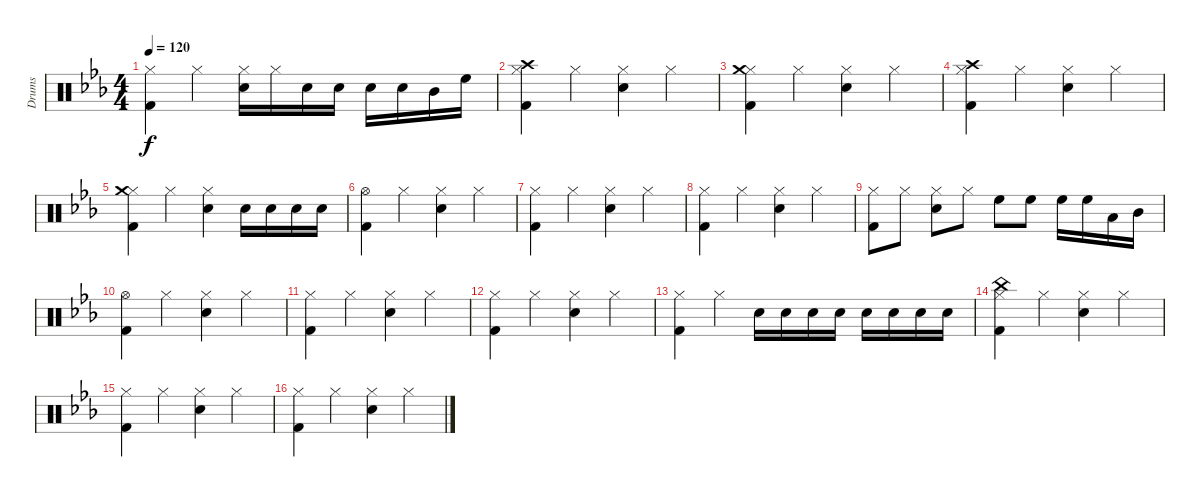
\track ("Drums" "Drums") {instrument percussion}
\staff {score}
\articulation defaults
\ts (4 4)
\tempo 120
\clef neutral
\ks cminor
("Hi-Hat (closed)" "Kick (hit) 2").4{dy f} "Hi-Hat (closed)".4 ("Hi-Hat (closed)" "Snare (hit) 2").16 "Hi-Hat (closed)".16 "Snare (hit) 2".16 "Snare (hit) 2".16 "Snare (hit) 2".16 "Snare (hit) 2".16 "Mid Tom (hit)".16 "High Floor Tom (hit)".16 |
("Hi-Hat (closed)" "Crash high (hit)" "Kick (hit) 2").4 "Hi-Hat (closed)".4 ("Hi-Hat (closed)" "Snare (hit) 2").4 "Hi-Hat (closed)".4 |
("Hi-Hat (closed)" "Crash medium (hit)" "Kick (hit) 2").4 "Hi-Hat (closed)".4 ("Hi-Hat (closed)" "Snare (hit) 2").4 "Hi-Hat (closed)".4 |
("Hi-Hat (closed)" "Crash high (hit)" "Kick (hit) 2").4 "Hi-Hat (closed)".4 ("Hi-Hat (closed)" "Snare (hit) 2").4 "Hi-Hat (closed)".4 |
("Hi-Hat (closed)" "Crash medium (hit)" "Kick (hit) 2").4 "Hi-Hat (closed)".4 ("Hi-Hat (closed)" "Snare (hit) 2").4 "Snare (hit) 2".16 "Snare (hit) 2".16 "Snare (hit) 2".16 "Snare (hit) 2".16 |
("Hi-Hat (open)" "Kick (hit) 2").4 "Hi-Hat (closed)".4 ("Hi-Hat (closed)" "Snare (hit) 2").4 "Hi-Hat (closed)".4 |
("Hi-Hat (closed)" "Kick (hit) 2").4 "Hi-Hat (closed)".4 ("Hi-Hat (closed)" "Snare (hit) 2").4 "Hi-Hat (closed)".4 |
("Hi-Hat (closed)" "Kick (hit) 2").4 "Hi-Hat (closed)".4 ("Hi-Hat (closed)" "Snare (hit) 2").4 "Hi-Hat (closed)".4 |
("Hi-Hat (closed)" "Kick (hit) 2").8 "Hi-Hat (closed)".8 ("Hi-Hat (closed)" "Snare (hit) 2").8 "Hi-Hat (closed)".8 "High Floor Tom (hit)".8 "High Floor Tom (hit)".8 "High Floor Tom (hit)".16 "High Floor Tom (hit)".16 "Low Tom (hit)".16 "Mid Tom (hit)".16 |
("Hi-Hat (open)" "Kick (hit) 2").4 "Hi-Hat (closed)".4 ("Hi-Hat (closed)" "Snare (hit) 2").4 "Hi-Hat (closed)".4 |
("Hi-Hat (closed)" "Kick (hit) 2").4 "Hi-Hat (closed)".4 ("Hi-Hat (closed)" "Snare (hit) 2").4 "Hi-Hat (closed)".4 |
("Hi-Hat (closed)" "Kick (hit) 2").4 "Hi-Hat (closed)".4 ("Hi-Hat (closed)" "Snare (hit) 2").4 "Hi-Hat (closed)".4 |
("Hi-Hat (closed)" "Kick (hit) 2").4 "Hi-Hat (closed)".4 "Snare (hit) 2".16 "Snare (hit) 2".16 "Snare (hit) 2".16 "Snare (hit) 2".16 "Snare (hit) 2".16 "Snare (hit) 2".16 "Snare (hit) 2".16 "Snare (hit) 2".16 |
("Hi-Hat (closed)" "China (hit)" "Kick (hit) 2").4 "Hi-Hat (closed)".4 ("Hi-Hat (closed)" "Snare (hit) 2").4 "Hi-Hat (closed)".4 |
("Hi-Hat (closed)" "Kick (hit) 2").4 "Hi-Hat (closed)".4 ("Hi-Hat (closed)" "Snare (hit) 2").4 "Hi-Hat (closed)".4 |
("Hi-Hat (closed)" "Kick (hit) 2").4 "Hi-Hat (closed)".4 ("Hi-Hat (closed)" "Snare (hit) 2").4 "Hi-Hat (closed)".4
